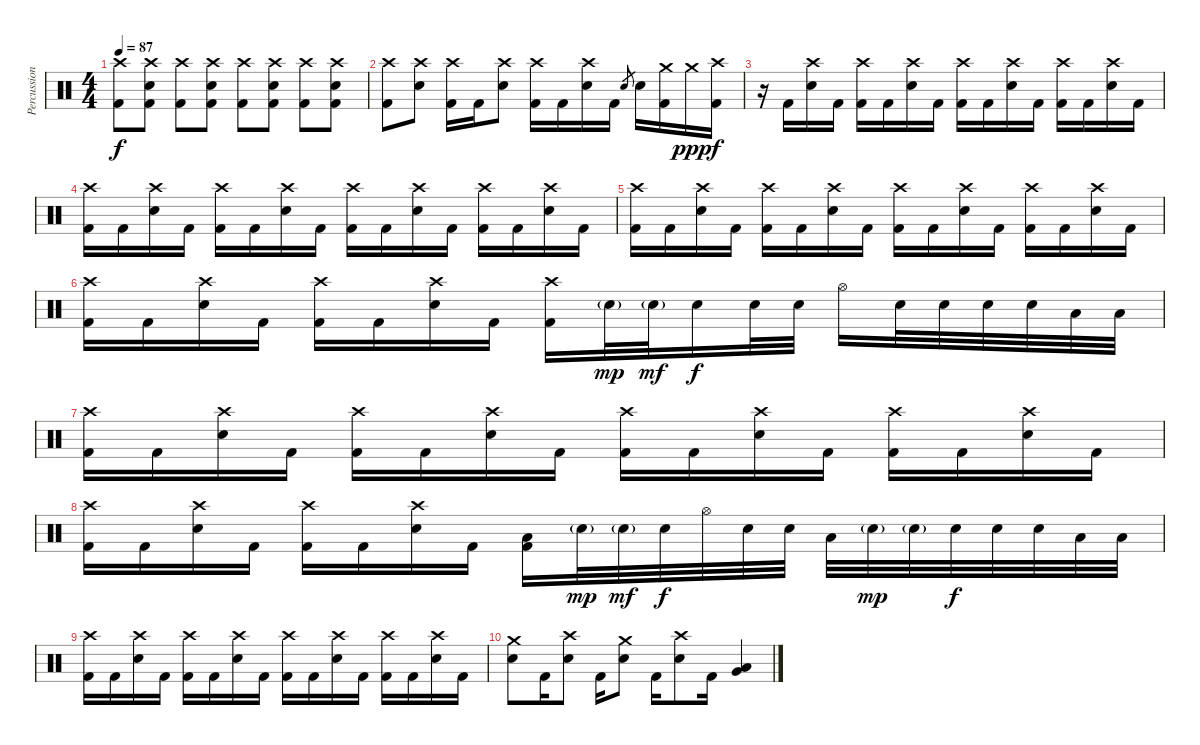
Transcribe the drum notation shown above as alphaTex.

\track ("Percussion" "Percussion") {instrument percussion}
\staff {score}
\articulation defaults
\ts (4 4)
\tempo 87
\clef neutral
\ks c
("Crash high (hit)" "Kick (hit) 2").8{dy f} ("Crash high (hit)" "Electric Snare (hit)" "Kick (hit) 2").8 ("Crash high (hit)" "Kick (hit) 2").8 ("Crash high (hit)" "Electric Snare (hit)" "Kick (hit) 2").8 ("Crash high (hit)" "Kick (hit) 2").8 ("Crash high (hit)" "Electric Snare (hit)" "Kick (hit) 2").8 ("Crash high (hit)" "Kick (hit) 2").8 ("Crash high (hit)" "Electric Snare (hit)" "Kick (hit) 2").8 |
("Crash high (hit)" "Kick (hit) 2").8 ("Crash high (hit)" "Electric Snare (hit)").8 ("Crash high (hit)" "Kick (hit) 2").16 "Kick (hit) 2".16 ("Crash high (hit)" "Electric Snare (hit)").8 ("Crash high (hit)" "Kick (hit) 2").16 "Kick (hit) 2".16 ("Crash high (hit)" "Electric Snare (hit)").16 "Kick (hit) 2".16 "Electric Snare (hit)".8{gr} "Electric Snare (hit)".16 ("Crash medium (hit)" "Kick (hit) 2").16 "Crash medium (hit)".16{dy ppp} ("Crash high (hit)" "Kick (hit) 2").16{dy f} |
r.16 "Kick (hit) 2".16 ("Crash high (hit)" "Electric Snare (hit)").16 "Kick (hit) 2".16 ("Crash high (hit)" "Kick (hit) 2").16 "Kick (hit) 2".16 ("Crash high (hit)" "Electric Snare (hit)").16 "Kick (hit) 2".16 ("Crash high (hit)" "Kick (hit) 2").16 "Kick (hit) 2".16 ("Crash high (hit)" "Electric Snare (hit)").16 "Kick (hit) 2".16 ("Crash high (hit)" "Kick (hit) 2").16 "Kick (hit) 2".16 ("Crash high (hit)" "Electric Snare (hit)").16 "Kick (hit) 2".16 |
("Crash high (hit)" "Kick (hit) 2").16 "Kick (hit) 2".16 ("Crash high (hit)" "Electric Snare (hit)").16 "Kick (hit) 2".16 ("Crash high (hit)" "Kick (hit) 2").16 "Kick (hit) 2".16 ("Crash high (hit)" "Electric Snare (hit)").16 "Kick (hit) 2".16 ("Crash high (hit)" "Kick (hit) 2").16 "Kick (hit) 2".16 ("Crash high (hit)" "Electric Snare (hit)").16 "Kick (hit) 2".16 ("Crash high (hit)" "Kick (hit) 2").16 "Kick (hit) 2".16 ("Crash high (hit)" "Electric Snare (hit)").16 "Kick (hit) 2".16 |
("Crash high (hit)" "Kick (hit) 2").16 "Kick (hit) 2".16 ("Crash high (hit)" "Electric Snare (hit)").16 "Kick (hit) 2".16 ("Crash high (hit)" "Kick (hit) 2").16 "Kick (hit) 2".16 ("Crash high (hit)" "Electric Snare (hit)").16 "Kick (hit) 2".16 ("Crash high (hit)" "Kick (hit) 2").16 "Kick (hit) 2".16 ("Crash high (hit)" "Electric Snare (hit)").16 "Kick (hit) 2".16 ("Crash high (hit)" "Kick (hit) 2").16 "Kick (hit) 2".16 ("Crash high (hit)" "Electric Snare (hit)").16 "Kick (hit) 2".16 |
("Crash high (hit)" "Kick (hit) 2").16 "Kick (hit) 2".16 ("Crash high (hit)" "Electric Snare (hit)").16 "Kick (hit) 2".16 ("Crash high (hit)" "Kick (hit) 2").16 "Kick (hit) 2".16 ("Crash high (hit)" "Electric Snare (hit)").16 "Kick (hit) 2".16 ("Crash high (hit)" "Kick (hit) 2").16 "Electric Snare (hit)"{g}.32{dy mp} "Electric Snare (hit)"{g}.32{dy mf} "Electric Snare (hit)".16{dy f} "Electric Snare (hit)".32 "Electric Snare (hit)".32 "Hi-Hat (open)".16 "Electric Snare (hit)".32 "Electric Snare (hit)".32 "Electric Snare (hit)".32 "Electric Snare (hit)".32 "Low Tom (hit)".32 "Low Tom (hit)".32 |
("Crash high (hit)" "Kick (hit) 2").16 "Kick (hit) 2".16 ("Crash high (hit)" "Electric Snare (hit)").16 "Kick (hit) 2".16 ("Crash high (hit)" "Kick (hit) 2").16 "Kick (hit) 2".16 ("Crash high (hit)" "Electric Snare (hit)").16 "Kick (hit) 2".16 ("Crash high (hit)" "Kick (hit) 2").16 "Kick (hit) 2".16 ("Crash high (hit)" "Electric Snare (hit)").16 "Kick (hit) 2".16 ("Crash high (hit)" "Kick (hit) 2").16 "Kick (hit) 2".16 ("Crash high (hit)" "Electric Snare (hit)").16 "Kick (hit) 2".16 |
("Crash high (hit)" "Kick (hit) 2").16 "Kick (hit) 2".16 ("Crash high (hit)" "Electric Snare (hit)").16 "Kick (hit) 2".16 ("Crash high (hit)" "Kick (hit) 2").16 "Kick (hit) 2".16 ("Crash high (hit)" "Electric Snare (hit)").16 "Kick (hit) 2".16 ("Low Tom (hit)" "Kick (hit) 2").16 "Electric Snare (hit)"{g}.32{dy mp} "Electric Snare (hit)"{g}.32{dy mf} "Electric Snare (hit)".32{dy f} "Hi-Hat (open)".32 "Electric Snare (hit)".32 "Electric Snare (hit)".32 "Low Tom (hit)".32 "Electric Snare (hit)"{g}.32{dy mp} "Electric Snare (hit)"{g}.32 "Electric Snare (hit)".32{dy f} "Electric Snare (hit)".32 "Electric Snare (hit)".32 "Low Tom (hit)".32 "Low Tom (hit)".32 |
("Crash high (hit)" "Kick (hit) 2").16 "Kick (hit) 2".16 ("Crash high (hit)" "Electric Snare (hit)").16 "Kick (hit) 2".16 ("Crash high (hit)" "Kick (hit) 2").16 "Kick (hit) 2".16 ("Crash high (hit)" "Electric Snare (hit)").16 "Kick (hit) 2".16 ("Crash high (hit)" "Kick (hit) 2").16 "Kick (hit) 2".16 ("Crash high (hit)" "Electric Snare (hit)").16 "Kick (hit) 2".16 ("Crash high (hit)" "Kick (hit) 2").16 "Kick (hit) 2".16 ("Crash high (hit)" "Electric Snare (hit)").16 "Kick (hit) 2".16 |
("Crash medium (hit)" "Electric Snare (hit)").8 "Kick (hit) 2".16 ("Crash high (hit)" "Electric Snare (hit)").8 "Kick (hit) 2".16 ("Crash medium (hit)" "Electric Snare (hit)").8 "Kick (hit) 2".16 ("Crash high (hit)" "Electric Snare (hit)").8 "Kick (hit) 2".16 ("Low Tom (hit)" "Very Low Tom (hit)").4
